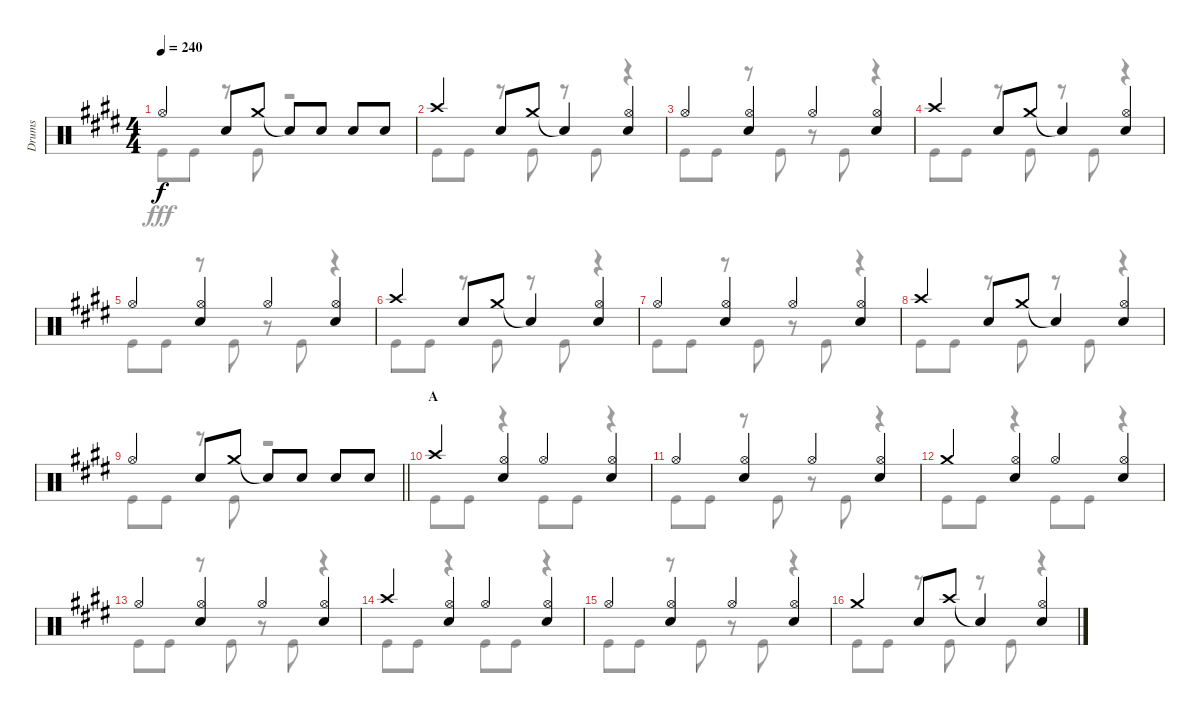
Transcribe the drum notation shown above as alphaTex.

\track ("Drums" "Drums") {instrument percussion}
\staff {score}
\articulation defaults
\voice
\ts (4 4)
\tempo 240
\clef neutral
\ks e "Hi-Hat (open)".4{dy f} "Snare (hit) 2".8 "Crash medium (hit)".8 "Snare (hit)"{t}.8 "Snare (hit) 2".8 "Snare (hit) 2".8 "Snare (hit) 2".8
|
"Crash high (hit)".4 "Snare (hit) 2".8 "Crash medium (hit)".8 "Snare (hit)"{t}.4 ("Hi-Hat (open)" "Snare (hit) 2").4 |
"Hi-Hat (open)".4 ("Hi-Hat (open)" "Snare (hit) 2").4 "Hi-Hat (open)".4 ("Hi-Hat (open)" "Snare (hit) 2").4 |
"Crash high (hit)".4 "Snare (hit) 2".8 "Crash medium (hit)".8 "Snare (hit)"{t}.4 ("Hi-Hat (open)" "Snare (hit) 2").4 |
"Hi-Hat (open)".4 ("Hi-Hat (open)" "Snare (hit) 2").4 "Hi-Hat (open)".4 ("Hi-Hat (open)" "Snare (hit) 2").4 |
"Crash high (hit)".4 "Snare (hit) 2".8 "Crash medium (hit)".8 "Snare (hit)"{t}.4 ("Hi-Hat (open)" "Snare (hit) 2").4 |
"Hi-Hat (open)".4 ("Hi-Hat (open)" "Snare (hit) 2").4 "Hi-Hat (open)".4 ("Hi-Hat (open)" "Snare (hit) 2").4 |
"Crash high (hit)".4 "Snare (hit) 2".8 "Crash medium (hit)".8 "Snare (hit)"{t}.4 ("Hi-Hat (open)" "Snare (hit) 2").4 |
\barLineRight lightlight "Hi-Hat (open)".4 "Snare (hit) 2".8 "Crash medium (hit)".8 "Snare (hit)"{t}.8 "Snare (hit) 2".8 "Snare (hit) 2".8 "Snare (hit) 2".8
|
\section ("" "A")
"Crash high (hit)".4 ("Hi-Hat (open)" "Snare (hit) 2").4 "Hi-Hat (open)".4 ("Hi-Hat (open)" "Snare (hit) 2").4 |
"Hi-Hat (open)".4 ("Hi-Hat (open)" "Snare (hit) 2").4 "Hi-Hat (open)".4 ("Hi-Hat (open)" "Snare (hit) 2").4 |
"Crash medium (hit)".4 ("Hi-Hat (open)" "Snare (hit) 2").4 "Hi-Hat (open)".4 ("Hi-Hat (open)" "Snare (hit) 2").4 |
"Hi-Hat (open)".4 ("Hi-Hat (open)" "Snare (hit) 2").4 "Hi-Hat (open)".4 ("Hi-Hat (open)" "Snare (hit) 2").4 |
"Crash high (hit)".4 ("Hi-Hat (open)" "Snare (hit) 2").4 "Hi-Hat (open)".4 ("Hi-Hat (open)" "Snare (hit) 2").4 |
"Hi-Hat (open)".4 ("Hi-Hat (open)" "Snare (hit) 2").4 "Hi-Hat (open)".4 ("Hi-Hat (open)" "Snare (hit) 2").4 |
"Crash medium (hit)".4 "Snare (hit) 2".8 "Crash high (hit)".8 "Snare (hit)"{t}.4 ("Hi-Hat (open)" "Snare (hit) 2").4
\voice
\clef neutral
\ottava regular
\simile none
\ks e "Kick (hit)".8{dy fff} "Kick (hit)".8
r.8 "Kick (hit)".8 r.2 |
"Kick (hit)".8 "Kick (hit)".8 r.8 "Kick (hit)".8 r.8 "Kick (hit)".8 r.4 |
"Kick (hit)".8 "Kick (hit)".8 r.8 "Kick (hit)".8 r.8 "Kick (hit)".8 r.4 |
"Kick (hit)".8 "Kick (hit)".8 r.8 "Kick (hit)".8 r.8 "Kick (hit)".8 r.4 |
"Kick (hit)".8 "Kick (hit)".8 r.8 "Kick (hit)".8 r.8 "Kick (hit)".8 r.4 |
"Kick (hit)".8 "Kick (hit)".8 r.8 "Kick (hit)".8 r.8 "Kick (hit)".8 r.4 |
"Kick (hit)".8 "Kick (hit)".8 r.8 "Kick (hit)".8 r.8 "Kick (hit)".8 r.4 |
"Kick (hit)".8 "Kick (hit)".8 r.8 "Kick (hit)".8 r.8 "Kick (hit)".8 r.4 |
\barLineRight lightlight "Kick (hit)".8 "Kick (hit)".8
r.8 "Kick (hit)".8 r.2 |
"Kick (hit)".8 "Kick (hit)".8 r.4 "Kick (hit)".8 "Kick (hit)".8 r.4 |
"Kick (hit)".8 "Kick (hit)".8 r.8 "Kick (hit)".8 r.8 "Kick (hit)".8 r.4 |
"Kick (hit)".8 "Kick (hit)".8 r.4 "Kick (hit)".8 "Kick (hit)".8 r.4 |
"Kick (hit)".8 "Kick (hit)".8 r.8 "Kick (hit)".8 r.8 "Kick (hit)".8 r.4 |
"Kick (hit)".8 "Kick (hit)".8 r.4 "Kick (hit)".8 "Kick (hit)".8 r.4 |
"Kick (hit)".8 "Kick (hit)".8 r.8 "Kick (hit)".8 r.8 "Kick (hit)".8 r.4 |
"Kick (hit)".8 "Kick (hit)".8 r.8 "Kick (hit)".8 r.8 "Kick (hit)".8 r.4
